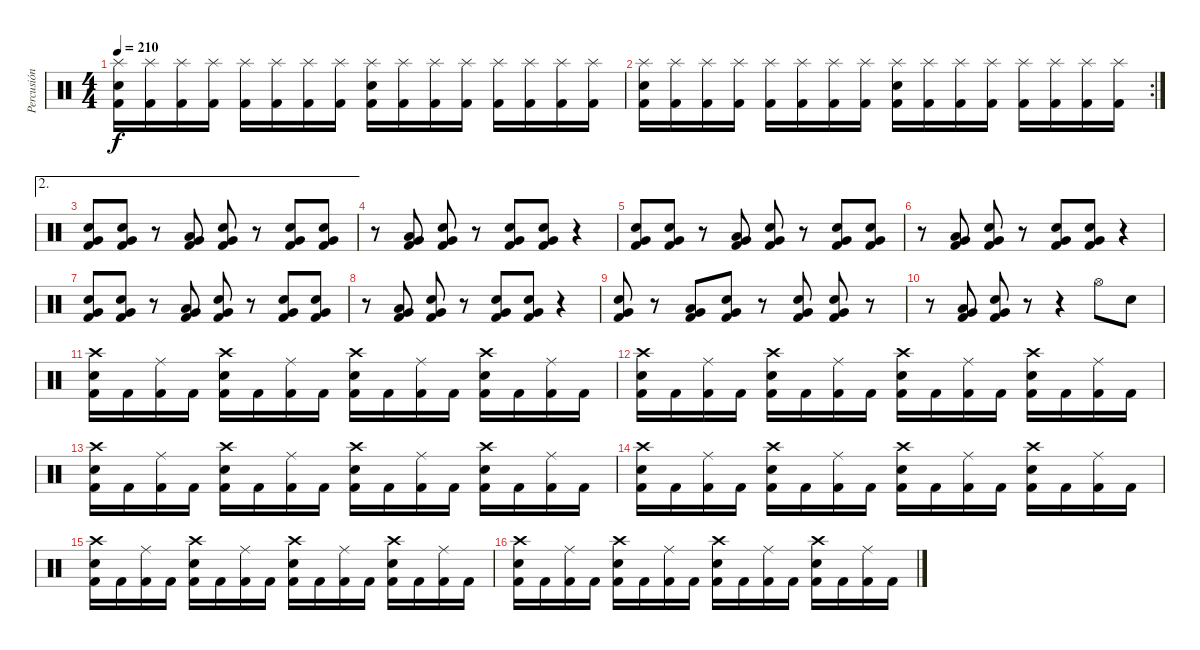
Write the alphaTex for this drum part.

\track ("Percusión" "Percusión") {instrument percussion}
\staff {score}
\articulation defaults
\ts (4 4)
\tempo 210
\clef neutral
\ks c
("Kick (hit) 2" "Snare (hit) 2" "Splash (hit)").16{dy f} ("Kick (hit) 2" "Splash (hit)").16 ("Kick (hit) 2" "Splash (hit)").16 ("Kick (hit) 2" "Splash (hit)").16 ("Kick (hit) 2" "Splash (hit)").16 ("Kick (hit) 2" "Splash (hit)").16 ("Kick (hit) 2" "Splash (hit)").16 ("Kick (hit) 2" "Splash (hit)").16 ("Kick (hit) 2" "Snare (hit) 2" "Splash (hit)").16 ("Kick (hit) 2" "Splash (hit)").16 ("Kick (hit) 2" "Splash (hit)").16 ("Kick (hit) 2" "Splash (hit)").16 ("Kick (hit) 2" "Splash (hit)").16 ("Kick (hit) 2" "Splash (hit)").16 ("Kick (hit) 2" "Splash (hit)").16 ("Kick (hit) 2" "Splash (hit)").16 |
\rc 2
("Kick (hit) 2" "Snare (hit) 2" "Splash (hit)").16 ("Kick (hit) 2" "Splash (hit)").16 ("Kick (hit) 2" "Splash (hit)").16 ("Kick (hit) 2" "Splash (hit)").16 ("Kick (hit) 2" "Splash (hit)").16 ("Kick (hit) 2" "Splash (hit)").16 ("Kick (hit) 2" "Splash (hit)").16 ("Kick (hit) 2" "Splash (hit)").16 ("Kick (hit) 2" "Snare (hit) 2" "Splash (hit)").16 ("Kick (hit) 2" "Splash (hit)").16 ("Kick (hit) 2" "Splash (hit)").16 ("Kick (hit) 2" "Splash (hit)").16 ("Kick (hit) 2" "Splash (hit)").16 ("Kick (hit) 2" "Splash (hit)").16 ("Kick (hit) 2" "Splash (hit)").16 ("Kick (hit) 2" "Splash (hit)").16 |
\ae 2
("Kick (hit) 2" "Very Low Tom (hit)" "Electric Snare (hit)").8 ("Kick (hit) 2" "Very Low Tom (hit)" "Electric Snare (hit)").8 r.8 ("Very Low Tom (hit)" "Low Floor Tom (hit)" "Kick (hit) 2").8 ("Kick (hit) 2" "Very Low Tom (hit)" "Electric Snare (hit)").8 r.8 ("Kick (hit) 2" "Very Low Tom (hit)" "Electric Snare (hit)").8 ("Kick (hit) 2" "Very Low Tom (hit)" "Electric Snare (hit)").8 |
r.8 ("Very Low Tom (hit)" "Low Floor Tom (hit)" "Kick (hit) 2").8 ("Kick (hit) 2" "Very Low Tom (hit)" "Electric Snare (hit)").8 r.8 ("Kick (hit) 2" "Very Low Tom (hit)" "Electric Snare (hit)").8 ("Kick (hit) 2" "Very Low Tom (hit)" "Electric Snare (hit)").8 r.4 |
("Kick (hit) 2" "Very Low Tom (hit)" "Electric Snare (hit)").8 ("Kick (hit) 2" "Very Low Tom (hit)" "Electric Snare (hit)").8 r.8 ("Very Low Tom (hit)" "Low Floor Tom (hit)" "Kick (hit) 2").8 ("Kick (hit) 2" "Very Low Tom (hit)" "Electric Snare (hit)").8 r.8 ("Kick (hit) 2" "Very Low Tom (hit)" "Electric Snare (hit)").8 ("Kick (hit) 2" "Very Low Tom (hit)" "Electric Snare (hit)").8 |
r.8 ("Very Low Tom (hit)" "Low Floor Tom (hit)" "Kick (hit) 2").8 ("Kick (hit) 2" "Very Low Tom (hit)" "Electric Snare (hit)").8 r.8 ("Kick (hit) 2" "Very Low Tom (hit)" "Electric Snare (hit)").8 ("Kick (hit) 2" "Very Low Tom (hit)" "Electric Snare (hit)").8 r.4 |
("Kick (hit) 2" "Very Low Tom (hit)" "Electric Snare (hit)").8 ("Kick (hit) 2" "Very Low Tom (hit)" "Electric Snare (hit)").8 r.8 ("Very Low Tom (hit)" "Low Floor Tom (hit)" "Kick (hit) 2").8 ("Kick (hit) 2" "Very Low Tom (hit)" "Electric Snare (hit)").8 r.8 ("Kick (hit) 2" "Very Low Tom (hit)" "Electric Snare (hit)").8 ("Kick (hit) 2" "Very Low Tom (hit)" "Electric Snare (hit)").8 |
r.8 ("Very Low Tom (hit)" "Low Floor Tom (hit)" "Kick (hit) 2").8 ("Kick (hit) 2" "Very Low Tom (hit)" "Electric Snare (hit)").8 r.8 ("Kick (hit) 2" "Very Low Tom (hit)" "Electric Snare (hit)").8 ("Kick (hit) 2" "Very Low Tom (hit)" "Electric Snare (hit)").8 r.4 |
("Kick (hit) 2" "Very Low Tom (hit)" "Electric Snare (hit)").8 r.8 ("Very Low Tom (hit)" "Low Floor Tom (hit)" "Kick (hit) 2").8 ("Kick (hit) 2" "Very Low Tom (hit)" "Electric Snare (hit)").8 r.8 ("Kick (hit) 2" "Very Low Tom (hit)" "Electric Snare (hit)").8 ("Kick (hit) 2" "Very Low Tom (hit)" "Electric Snare (hit)").8 r.8 |
r.8 ("Very Low Tom (hit)" "Low Floor Tom (hit)" "Kick (hit) 2").8 ("Kick (hit) 2" "Very Low Tom (hit)" "Electric Snare (hit)").8 r.8 r.4 "Hi-Hat (open)".8 "Electric Snare (hit)".8 |
("Kick (hit) 2" "Snare (hit) 2" "Crash high (hit)").16 "Kick (hit) 2".16 ("Kick (hit) 2" "Ride (middle)").16 "Kick (hit) 2".16 ("Kick (hit) 2" "Snare (hit) 2" "Crash high (hit)").16 "Kick (hit) 2".16 ("Kick (hit) 2" "Ride (middle)").16 "Kick (hit) 2".16 ("Kick (hit) 2" "Snare (hit) 2" "Crash high (hit)").16 "Kick (hit) 2".16 ("Kick (hit) 2" "Ride (middle)").16 "Kick (hit) 2".16 ("Kick (hit) 2" "Snare (hit) 2" "Crash high (hit)").16 "Kick (hit) 2".16 ("Kick (hit) 2" "Ride (middle)").16 "Kick (hit) 2".16 |
("Kick (hit) 2" "Snare (hit) 2" "Crash high (hit)").16 "Kick (hit) 2".16 ("Kick (hit) 2" "Ride (middle)").16 "Kick (hit) 2".16 ("Kick (hit) 2" "Snare (hit) 2" "Crash high (hit)").16 "Kick (hit) 2".16 ("Kick (hit) 2" "Ride (middle)").16 "Kick (hit) 2".16 ("Kick (hit) 2" "Snare (hit) 2" "Crash high (hit)").16 "Kick (hit) 2".16 ("Kick (hit) 2" "Ride (middle)").16 "Kick (hit) 2".16 ("Kick (hit) 2" "Snare (hit) 2" "Crash high (hit)").16 "Kick (hit) 2".16 ("Kick (hit) 2" "Ride (middle)").16 "Kick (hit) 2".16 |
("Kick (hit) 2" "Snare (hit) 2" "Crash high (hit)").16 "Kick (hit) 2".16 ("Kick (hit) 2" "Ride (middle)").16 "Kick (hit) 2".16 ("Kick (hit) 2" "Snare (hit) 2" "Crash high (hit)").16 "Kick (hit) 2".16 ("Kick (hit) 2" "Ride (middle)").16 "Kick (hit) 2".16 ("Kick (hit) 2" "Snare (hit) 2" "Crash high (hit)").16 "Kick (hit) 2".16 ("Kick (hit) 2" "Ride (middle)").16 "Kick (hit) 2".16 ("Kick (hit) 2" "Snare (hit) 2" "Crash high (hit)").16 "Kick (hit) 2".16 ("Kick (hit) 2" "Ride (middle)").16 "Kick (hit) 2".16 |
("Kick (hit) 2" "Snare (hit) 2" "Crash high (hit)").16 "Kick (hit) 2".16 ("Kick (hit) 2" "Ride (middle)").16 "Kick (hit) 2".16 ("Kick (hit) 2" "Snare (hit) 2" "Crash high (hit)").16 "Kick (hit) 2".16 ("Kick (hit) 2" "Ride (middle)").16 "Kick (hit) 2".16 ("Kick (hit) 2" "Snare (hit) 2" "Crash high (hit)").16 "Kick (hit) 2".16 ("Kick (hit) 2" "Ride (middle)").16 "Kick (hit) 2".16 ("Kick (hit) 2" "Snare (hit) 2" "Crash high (hit)").16 "Kick (hit) 2".16 ("Kick (hit) 2" "Ride (middle)").16 "Kick (hit) 2".16 |
("Kick (hit) 2" "Snare (hit) 2" "Crash high (hit)").16 "Kick (hit) 2".16 ("Kick (hit) 2" "Ride (middle)").16 "Kick (hit) 2".16 ("Kick (hit) 2" "Snare (hit) 2" "Crash high (hit)").16 "Kick (hit) 2".16 ("Kick (hit) 2" "Ride (middle)").16 "Kick (hit) 2".16 ("Kick (hit) 2" "Snare (hit) 2" "Crash high (hit)").16 "Kick (hit) 2".16 ("Kick (hit) 2" "Ride (middle)").16 "Kick (hit) 2".16 ("Kick (hit) 2" "Snare (hit) 2" "Crash high (hit)").16 "Kick (hit) 2".16 ("Kick (hit) 2" "Ride (middle)").16 "Kick (hit) 2".16 |
("Kick (hit) 2" "Snare (hit) 2" "Crash high (hit)").16 "Kick (hit) 2".16 ("Kick (hit) 2" "Ride (middle)").16 "Kick (hit) 2".16 ("Kick (hit) 2" "Snare (hit) 2" "Crash high (hit)").16 "Kick (hit) 2".16 ("Kick (hit) 2" "Ride (middle)").16 "Kick (hit) 2".16 ("Kick (hit) 2" "Snare (hit) 2" "Crash high (hit)").16 "Kick (hit) 2".16 ("Kick (hit) 2" "Ride (middle)").16 "Kick (hit) 2".16 ("Kick (hit) 2" "Snare (hit) 2" "Crash high (hit)").16 "Kick (hit) 2".16 ("Kick (hit) 2" "Ride (middle)").16 "Kick (hit) 2".16
